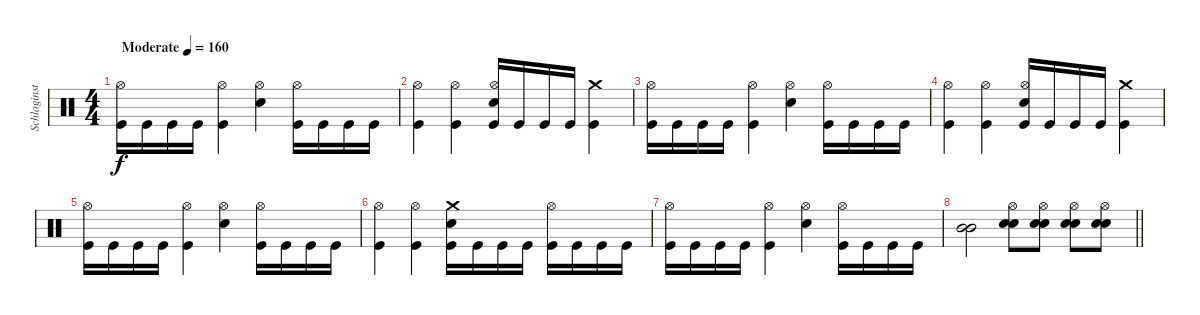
\track ("Schlaginstrumente - Auswahl" "Schlaginst") {instrument percussion}
\staff {score}
\articulation defaults
\ts (4 4)
\tempo (160 "Moderate")
\clef neutral
\ks c
("Kick (hit)" "Hi-Hat (open)").16{dy f} "Kick (hit)".16 "Kick (hit)".16 "Kick (hit)".16 ("Kick (hit)" "Hi-Hat (open)").4 ("Snare (hit) 2" "Hi-Hat (open)").4 ("Hi-Hat (open)" "Kick (hit)").16 "Kick (hit)".16 "Kick (hit)".16 "Kick (hit)".16 |
("Kick (hit)" "Hi-Hat (open)").4 ("Kick (hit)" "Hi-Hat (open)").4 ("Snare (hit) 2" "Kick (hit)" "Hi-Hat (open)").16 "Kick (hit)".16 "Kick (hit)".16 "Kick (hit)".16 ("Kick (hit)" "Crash medium (hit)").4 |
("Kick (hit)" "Hi-Hat (open)").16 "Kick (hit)".16 "Kick (hit)".16 "Kick (hit)".16 ("Kick (hit)" "Hi-Hat (open)").4 ("Snare (hit) 2" "Hi-Hat (open)").4 ("Kick (hit)" "Hi-Hat (open)").16 "Kick (hit)".16 "Kick (hit)".16 "Kick (hit)".16 |
("Kick (hit)" "Hi-Hat (open)").4 ("Kick (hit)" "Hi-Hat (open)").4 ("Snare (hit) 2" "Kick (hit)" "Hi-Hat (open)").16 "Kick (hit)".16 "Kick (hit)".16 "Kick (hit)".16 ("Kick (hit)" "Crash medium (hit)").4 |
("Kick (hit)" "Hi-Hat (open)").16 "Kick (hit)".16 "Kick (hit)".16 "Kick (hit)".16 ("Kick (hit)" "Hi-Hat (open)").4 ("Snare (hit) 2" "Hi-Hat (open)").4 ("Kick (hit)" "Hi-Hat (open)").16 "Kick (hit)".16 "Kick (hit)".16 "Kick (hit)".16 |
("Kick (hit)" "Hi-Hat (open)").4 ("Kick (hit)" "Hi-Hat (open)").4 ("Snare (hit) 2" "Kick (hit)" "Crash medium (hit)").16 "Kick (hit)".16 "Kick (hit)".16 "Kick (hit)".16 ("Kick (hit)" "Hi-Hat (open)").16 "Kick (hit)".16 "Kick (hit)".16 "Kick (hit)".16 |
("Kick (hit)" "Hi-Hat (open)").16 "Kick (hit)".16 "Kick (hit)".16 "Kick (hit)".16 ("Kick (hit)" "Hi-Hat (open)").4 ("Snare (hit) 2" "Hi-Hat (open)").4 ("Hi-Hat (open)" "Kick (hit)").16 "Kick (hit)".16 "Kick (hit)".16 "Kick (hit)".16 |
\barLineRight lightlight
("Mid Tom (hit)" "Mid Tom (hit)").2 ("Snare (hit) 2" "Snare (hit) 2" "Hi-Hat (open)").8 ("Snare (hit) 2" "Snare (hit) 2" "Hi-Hat (open)").8 ("Snare (hit) 2" "Snare (hit) 2" "Hi-Hat (open)").8 ("Snare (hit) 2" "Snare (hit) 2" "Hi-Hat (open)").8
